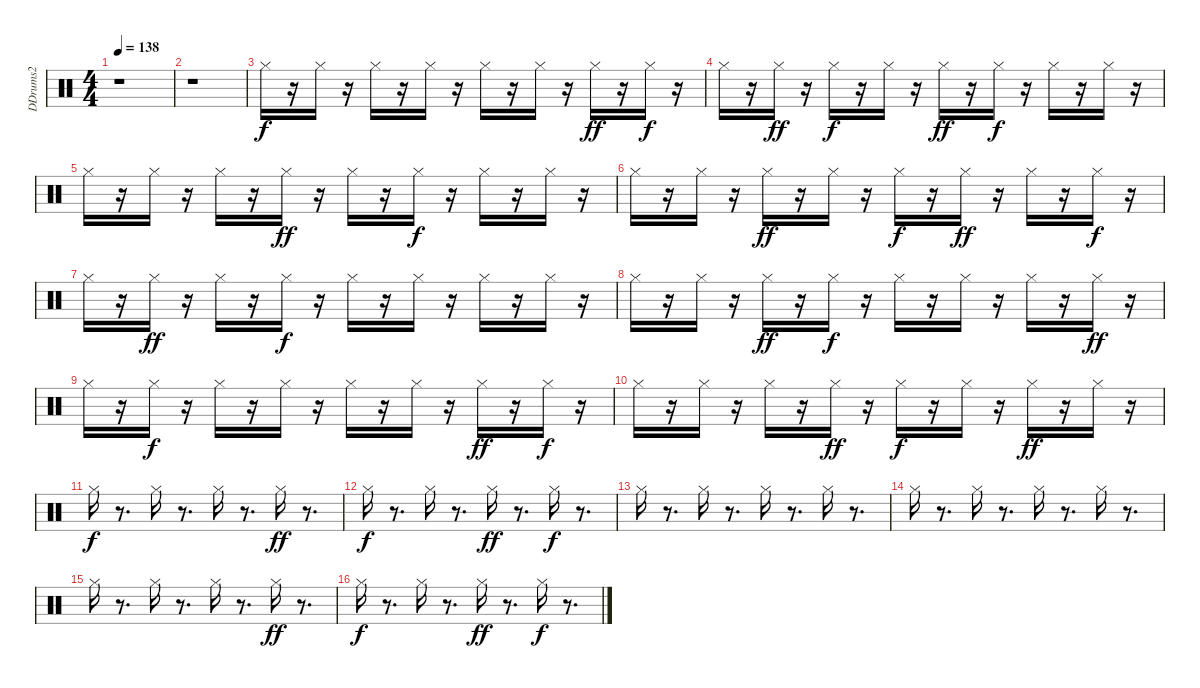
\track ("DDrums2" "DDrums2") {instrument percussion}
\staff {score}
\articulation defaults
\ts (4 4)
\tempo 138
\clef neutral
\ks c
r.1{dy f} |
r.1 |
"Hi-Hat (closed)".16 r.16 "Hi-Hat (closed)".16 r.16 "Hi-Hat (closed)".16 r.16 "Hi-Hat (closed)".16 r.16 "Hi-Hat (closed)".16 r.16 "Hi-Hat (closed)".16 r.16 "Hi-Hat (closed)".16{dy ff} r.16 "Hi-Hat (closed)".16{dy f} r.16 |
"Hi-Hat (closed)".16 r.16 "Hi-Hat (closed)".16{dy ff} r.16 "Hi-Hat (closed)".16{dy f} r.16 "Hi-Hat (closed)".16 r.16 "Hi-Hat (closed)".16{dy ff} r.16 "Hi-Hat (closed)".16{dy f} r.16 "Hi-Hat (closed)".16 r.16 "Hi-Hat (closed)".16 r.16 |
"Hi-Hat (closed)".16 r.16 "Hi-Hat (closed)".16 r.16 "Hi-Hat (closed)".16 r.16 "Hi-Hat (closed)".16{dy ff} r.16 "Hi-Hat (closed)".16 r.16 "Hi-Hat (closed)".16{dy f} r.16 "Hi-Hat (closed)".16 r.16 "Hi-Hat (closed)".16 r.16 |
"Hi-Hat (closed)".16 r.16 "Hi-Hat (closed)".16 r.16 "Hi-Hat (closed)".16{dy ff} r.16 "Hi-Hat (closed)".16 r.16 "Hi-Hat (closed)".16{dy f} r.16 "Hi-Hat (closed)".16{dy ff} r.16 "Hi-Hat (closed)".16 r.16 "Hi-Hat (closed)".16{dy f} r.16 |
"Hi-Hat (closed)".16 r.16 "Hi-Hat (closed)".16{dy ff} r.16 "Hi-Hat (closed)".16 r.16 "Hi-Hat (closed)".16{dy f} r.16 "Hi-Hat (closed)".16 r.16 "Hi-Hat (closed)".16 r.16 "Hi-Hat (closed)".16 r.16 "Hi-Hat (closed)".16 r.16 |
"Hi-Hat (closed)".16 r.16 "Hi-Hat (closed)".16 r.16 "Hi-Hat (closed)".16{dy ff} r.16 "Hi-Hat (closed)".16{dy f} r.16 "Hi-Hat (closed)".16 r.16 "Hi-Hat (closed)".16 r.16 "Hi-Hat (closed)".16 r.16 "Hi-Hat (closed)".16{dy ff} r.16 |
"Hi-Hat (closed)".16 r.16 "Hi-Hat (closed)".16{dy f} r.16 "Hi-Hat (closed)".16 r.16 "Hi-Hat (closed)".16 r.16 "Hi-Hat (closed)".16 r.16 "Hi-Hat (closed)".16 r.16 "Hi-Hat (closed)".16{dy ff} r.16 "Hi-Hat (closed)".16{dy f} r.16 |
"Hi-Hat (closed)".16 r.16 "Hi-Hat (closed)".16 r.16 "Hi-Hat (closed)".16 r.16 "Hi-Hat (closed)".16{dy ff} r.16 "Hi-Hat (closed)".16{dy f} r.16 "Hi-Hat (closed)".16 r.16 "Hi-Hat (closed)".16{dy ff} r.16 "Hi-Hat (closed)".16 r.16 |
"Hi-Hat (closed)".16{dy f} r.8{d} "Hi-Hat (closed)".16 r.8{d} "Hi-Hat (closed)".16 r.8{d} "Hi-Hat (closed)".16{dy ff} r.8{d} |
"Hi-Hat (closed)".16{dy f} r.8{d} "Hi-Hat (closed)".16 r.8{d} "Hi-Hat (closed)".16{dy ff} r.8{d} "Hi-Hat (closed)".16{dy f} r.8{d} |
"Hi-Hat (closed)".16 r.8{d} "Hi-Hat (closed)".16 r.8{d} "Hi-Hat (closed)".16 r.8{d} "Hi-Hat (closed)".16 r.8{d} |
"Hi-Hat (closed)".16 r.8{d} "Hi-Hat (closed)".16 r.8{d} "Hi-Hat (closed)".16 r.8{d} "Hi-Hat (closed)".16 r.8{d} |
"Hi-Hat (closed)".16 r.8{d} "Hi-Hat (closed)".16 r.8{d} "Hi-Hat (closed)".16 r.8{d} "Hi-Hat (closed)".16{dy ff} r.8{d} |
"Hi-Hat (closed)".16{dy f} r.8{d} "Hi-Hat (closed)".16 r.8{d} "Hi-Hat (closed)".16{dy ff} r.8{d} "Hi-Hat (closed)".16{dy f} r.8{d}
